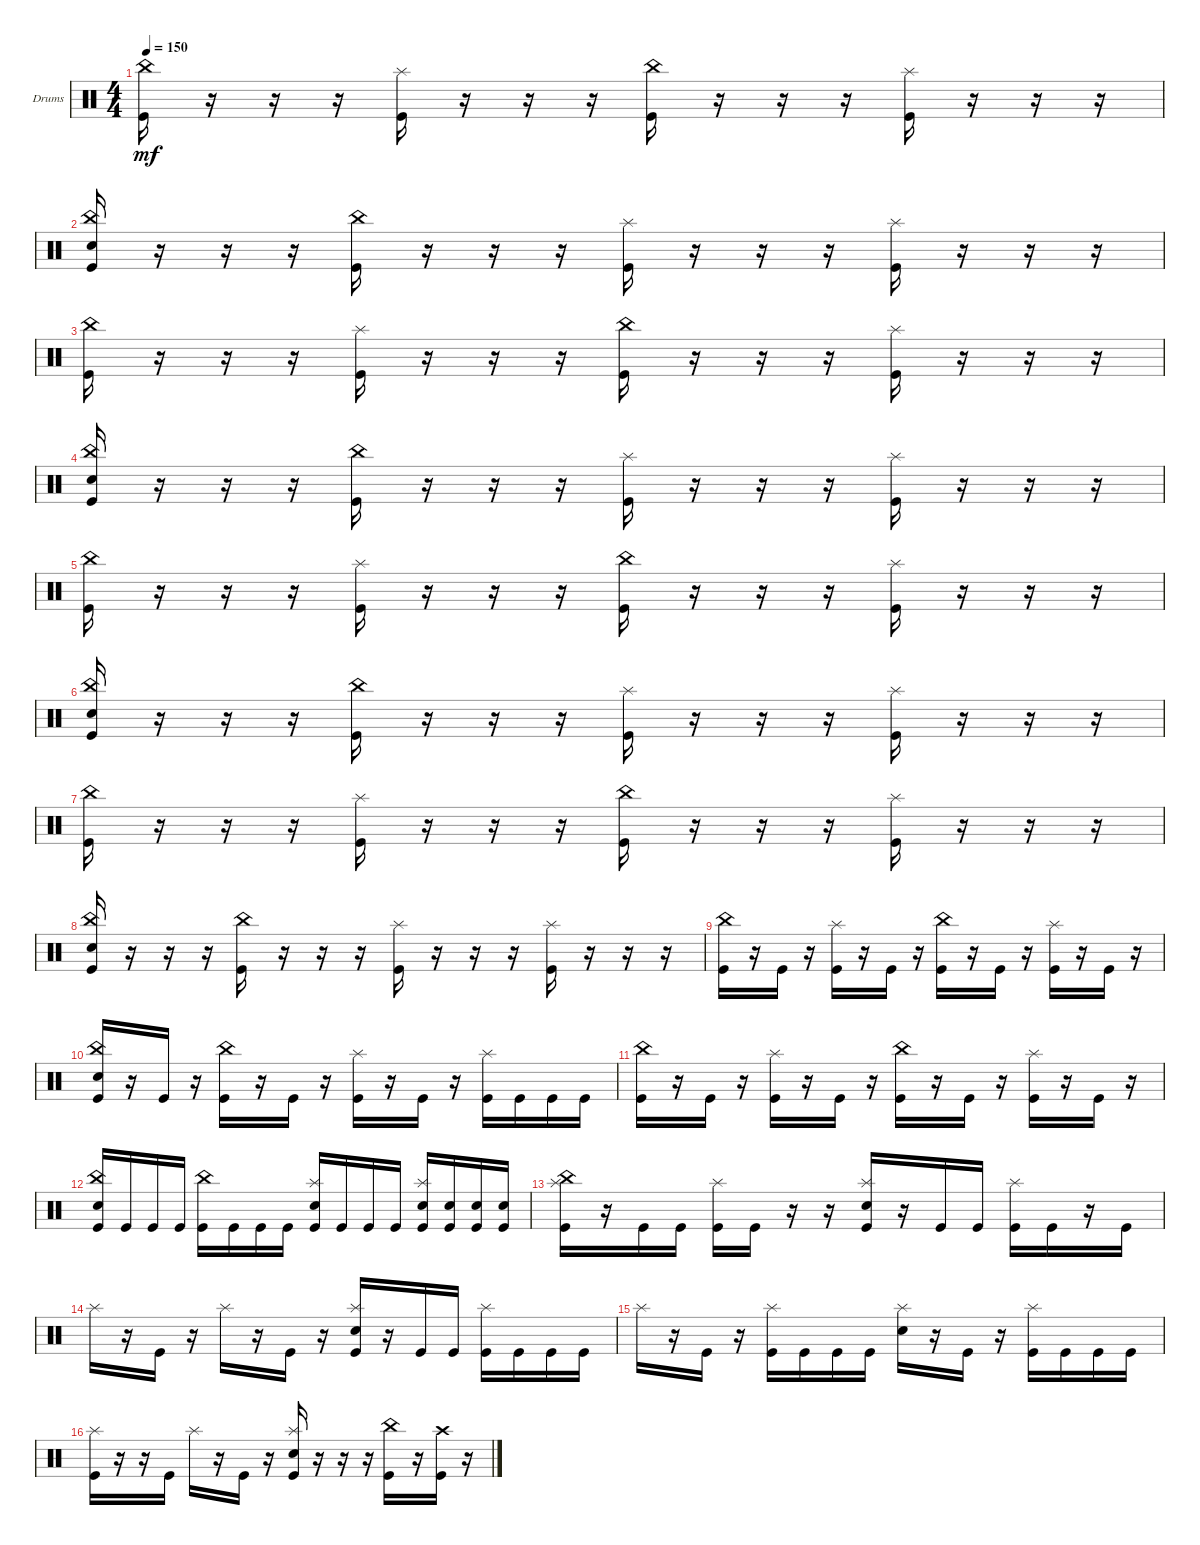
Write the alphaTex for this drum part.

\defaultSystemsLayout 4
\bracketExtendMode groupsimilarinstruments
\firstSystemTrackNameOrientation horizontal
\otherSystemsTrackNameOrientation horizontal
\track ("Drumkit" "Drums") {instrument percussion}
\staff {score}
\articulation defaults
\ts (4 4)
\tempo 150
\clef neutral
\ks c
("Kick (hit)" "China (hit)").16{dy mf} r.16 r.16 r.16 ("Kick (hit)" "Splash (hit)").16 r.16 r.16 r.16 ("Kick (hit)" "China (hit)").16 r.16 r.16 r.16 ("Kick (hit)" "Splash (hit)").16 r.16 r.16 r.16 |
("Kick (hit)" "China (hit)" "Snare (hit) 2").16 r.16 r.16 r.16 ("Kick (hit)" "China (hit)").16 r.16 r.16 r.16 ("Kick (hit)" "Splash (hit)").16 r.16 r.16 r.16 ("Kick (hit)" "Splash (hit)").16 r.16 r.16 r.16 |
("Kick (hit)" "China (hit)").16 r.16 r.16 r.16 ("Kick (hit)" "Splash (hit)").16 r.16 r.16 r.16 ("Kick (hit)" "China (hit)").16 r.16 r.16 r.16 ("Kick (hit)" "Splash (hit)").16 r.16 r.16 r.16 |
("Kick (hit)" "China (hit)" "Snare (hit) 2").16 r.16 r.16 r.16 ("Kick (hit)" "China (hit)").16 r.16 r.16 r.16 ("Kick (hit)" "Splash (hit)").16 r.16 r.16 r.16 ("Kick (hit)" "Splash (hit)").16 r.16 r.16 r.16 |
("Kick (hit)" "China (hit)").16 r.16 r.16 r.16 ("Kick (hit)" "Splash (hit)").16 r.16 r.16 r.16 ("Kick (hit)" "China (hit)").16 r.16 r.16 r.16 ("Kick (hit)" "Splash (hit)").16 r.16 r.16 r.16 |
("Kick (hit)" "China (hit)" "Snare (hit) 2").16 r.16 r.16 r.16 ("Kick (hit)" "China (hit)").16 r.16 r.16 r.16 ("Kick (hit)" "Splash (hit)").16 r.16 r.16 r.16 ("Kick (hit)" "Splash (hit)").16 r.16 r.16 r.16 |
("Kick (hit)" "China (hit)").16 r.16 r.16 r.16 ("Kick (hit)" "Splash (hit)").16 r.16 r.16 r.16 ("Kick (hit)" "China (hit)").16 r.16 r.16 r.16 ("Kick (hit)" "Splash (hit)").16 r.16 r.16 r.16 |
("Kick (hit)" "China (hit)" "Snare (hit) 2").16 r.16 r.16 r.16 ("Kick (hit)" "China (hit)").16 r.16 r.16 r.16 ("Kick (hit)" "Splash (hit)").16 r.16 r.16 r.16 ("Kick (hit)" "Splash (hit)").16 r.16 r.16 r.16 |
("Kick (hit)" "China (hit)").16 r.16 "Kick (hit)".16 r.16 ("Kick (hit)" "Splash (hit)").16 r.16 "Kick (hit)".16 r.16 ("Kick (hit)" "China (hit)").16 r.16 "Kick (hit)".16 r.16 ("Kick (hit)" "Splash (hit)").16 r.16 "Kick (hit)".16 r.16 |
("Kick (hit)" "China (hit)" "Snare (hit) 2").16 r.16 "Kick (hit)".16 r.16 ("Kick (hit)" "China (hit)").16 r.16 "Kick (hit)".16 r.16 ("Kick (hit)" "Splash (hit)").16 r.16 "Kick (hit)".16 r.16 ("Kick (hit)" "Splash (hit)").16 "Kick (hit)".16 "Kick (hit)".16 "Kick (hit)".16 |
("Kick (hit)" "China (hit)").16 r.16 "Kick (hit)".16 r.16 ("Kick (hit)" "Splash (hit)").16 r.16 "Kick (hit)".16 r.16 ("Kick (hit)" "China (hit)").16 r.16 "Kick (hit)".16 r.16 ("Kick (hit)" "Splash (hit)").16 r.16 "Kick (hit)".16 r.16 |
("Kick (hit)" "China (hit)" "Snare (hit) 2").16 "Kick (hit)".16 "Kick (hit)".16 "Kick (hit)".16 ("Kick (hit)" "China (hit)").16 "Kick (hit)".16 "Kick (hit)".16 "Kick (hit)".16 ("Kick (hit)" "Splash (hit)" "Snare (hit) 2").16 "Kick (hit)".16 "Kick (hit)".16 "Kick (hit)".16 ("Kick (hit)" "Splash (hit)" "Snare (hit) 2").16 ("Kick (hit)" "Snare (hit) 2").16 ("Kick (hit)" "Snare (hit) 2").16 ("Kick (hit)" "Snare (hit) 2").16 |
("Kick (hit)" "Splash (hit)" "China (hit)").16 r.16 "Kick (hit)".16 "Kick (hit)".16 ("Kick (hit)" "Splash (hit)").16 "Kick (hit)".16 r.16 r.16 ("Kick (hit)" "Splash (hit)" "Snare (hit) 2").16 r.16 "Kick (hit)".16 "Kick (hit)".16 ("Kick (hit)" "Splash (hit)").16 "Kick (hit)".16 r.16 "Kick (hit)".16 |
"Splash (hit)".16 r.16 "Kick (hit)".16 r.16 "Splash (hit)".16 r.16 "Kick (hit)".16 r.16 ("Kick (hit)" "Splash (hit)" "Snare (hit) 2").16 r.16 "Kick (hit)".16 "Kick (hit)".16 ("Kick (hit)" "Splash (hit)").16 "Kick (hit)".16 "Kick (hit)".16 "Kick (hit)".16 |
"Splash (hit)".16 r.16 "Kick (hit)".16 r.16 ("Kick (hit)" "Splash (hit)").16 "Kick (hit)".16 "Kick (hit)".16 "Kick (hit)".16 ("Splash (hit)" "Snare (hit) 2").16 r.16 "Kick (hit)".16 r.16 ("Kick (hit)" "Splash (hit)").16 "Kick (hit)".16 "Kick (hit)".16 "Kick (hit)".16 |
("Kick (hit)" "Splash (hit)").16 r.16 r.16 "Kick (hit)".16 "Splash (hit)".16 r.16 "Kick (hit)".16 r.16 ("Kick (hit)" "Splash (hit)" "Snare (hit) 2").16 r.16 r.16 r.16 ("Kick (hit)" "China (hit)").16 r.16 ("Kick (hit)" "Crash high (hit)").16 r.16
